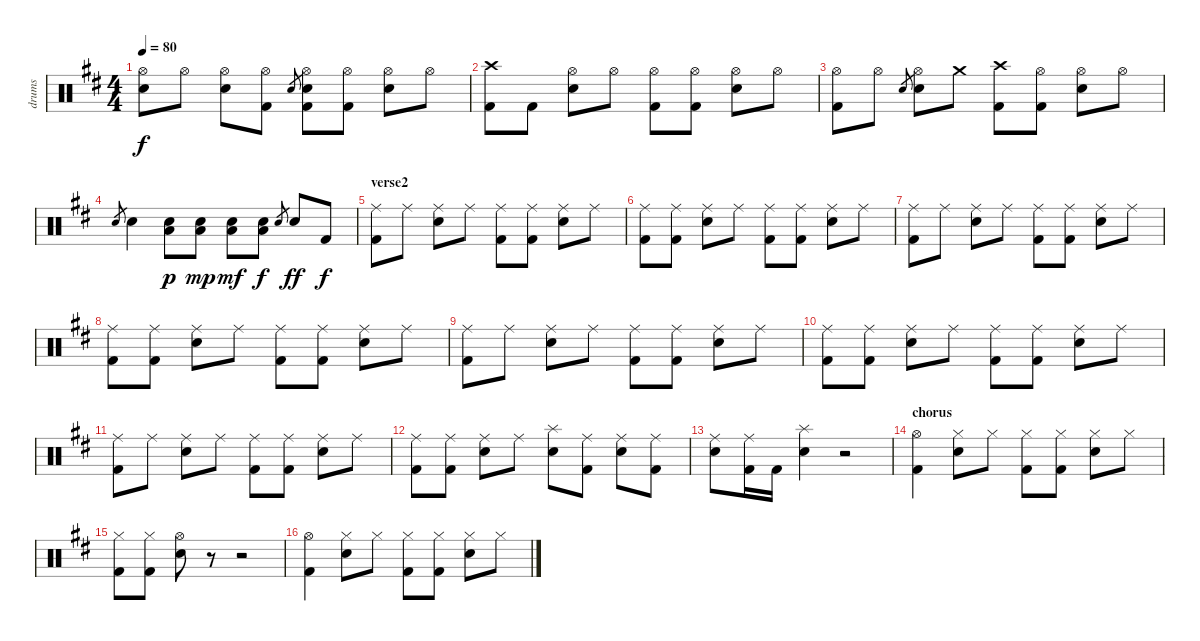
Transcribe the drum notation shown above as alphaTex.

\track ("drums" "drums") {instrument percussion}
\staff {score}
\articulation defaults
\ts (4 4)
\tempo 80
\clef neutral
\ks bminor
("Hi-Hat (open)" "Electric Snare (hit)").8{dy f} "Hi-Hat (open)".8 ("Hi-Hat (open)" "Electric Snare (hit)").8 ("Hi-Hat (open)" "Kick (hit) 2").8 "Electric Snare (hit)".8{gr} ("Hi-Hat (open)" "Electric Snare (hit)" "Kick (hit) 2").8 ("Hi-Hat (open)" "Kick (hit) 2").8 ("Hi-Hat (open)" "Electric Snare (hit)").8 "Hi-Hat (open)".8 |
("Crash high (hit)" "Kick (hit) 2").8 "Kick (hit) 2".8 ("Hi-Hat (open)" "Electric Snare (hit)").8 "Hi-Hat (open)".8 ("Hi-Hat (open)" "Kick (hit) 2").8 ("Hi-Hat (open)" "Kick (hit) 2").8 ("Hi-Hat (open)" "Electric Snare (hit)").8 "Hi-Hat (open)".8 |
("Hi-Hat (open)" "Kick (hit) 2").8 "Hi-Hat (open)".8 "Electric Snare (hit)".8{gr} ("Hi-Hat (open)" "Electric Snare (hit)").8 "Crash medium (hit)".8 ("Crash high (hit)" "Kick (hit) 2").8 ("Hi-Hat (open)" "Kick (hit) 2").8 ("Hi-Hat (open)" "Electric Snare (hit)").8 "Hi-Hat (open)".8 |
"Electric Snare (hit)".8{gr} "Electric Snare (hit)".4 ("Low Floor Tom (hit)" "Electric Snare (hit)").8{dy p} ("Low Floor Tom (hit)" "Electric Snare (hit)").8{dy mp} ("Low Floor Tom (hit)" "Electric Snare (hit)").8{dy mf} ("Low Floor Tom (hit)" "Electric Snare (hit)").8{dy f} "Electric Snare (hit)".8{gr} "Electric Snare (hit)".8{dy ff} "Kick (hit) 2".8{dy f} |
\section ("" "verse2")
("Ride (middle)" "Kick (hit) 2").8 "Ride (middle)".8 ("Ride (middle)" "Electric Snare (hit)").8 "Ride (middle)".8 ("Ride (middle)" "Kick (hit) 2").8 ("Ride (middle)" "Kick (hit) 2").8 ("Ride (middle)" "Electric Snare (hit)").8 "Ride (middle)".8 |
("Ride (middle)" "Kick (hit) 2").8 ("Ride (middle)" "Kick (hit) 2").8 ("Ride (middle)" "Electric Snare (hit)").8 "Ride (middle)".8 ("Ride (middle)" "Kick (hit) 2").8 ("Ride (middle)" "Kick (hit) 2").8 ("Ride (middle)" "Electric Snare (hit)").8 "Ride (middle)".8 |
("Ride (middle)" "Kick (hit) 2").8 "Ride (middle)".8 ("Ride (middle)" "Electric Snare (hit)").8 "Ride (middle)".8 ("Ride (middle)" "Kick (hit) 2").8 ("Ride (middle)" "Kick (hit) 2").8 ("Ride (middle)" "Electric Snare (hit)").8 "Ride (middle)".8 |
("Ride (middle)" "Kick (hit) 2").8 ("Ride (middle)" "Kick (hit) 2").8 ("Ride (middle)" "Electric Snare (hit)").8 "Ride (middle)".8 ("Ride (middle)" "Kick (hit) 2").8 ("Ride (middle)" "Kick (hit) 2").8 ("Ride (middle)" "Electric Snare (hit)").8 "Ride (middle)".8 |
("Ride (middle)" "Kick (hit) 2").8 "Ride (middle)".8 ("Ride (middle)" "Electric Snare (hit)").8 "Ride (middle)".8 ("Ride (middle)" "Kick (hit) 2").8 ("Ride (middle)" "Kick (hit) 2").8 ("Ride (middle)" "Electric Snare (hit)").8 "Ride (middle)".8 |
("Ride (middle)" "Kick (hit) 2").8 ("Ride (middle)" "Kick (hit) 2").8 ("Ride (middle)" "Electric Snare (hit)").8 "Ride (middle)".8 ("Ride (middle)" "Kick (hit) 2").8 ("Ride (middle)" "Kick (hit) 2").8 ("Ride (middle)" "Electric Snare (hit)").8 "Ride (middle)".8 |
("Ride (middle)" "Kick (hit) 2").8 "Ride (middle)".8 ("Ride (middle)" "Electric Snare (hit)").8 "Ride (middle)".8 ("Ride (middle)" "Kick (hit) 2").8 ("Ride (middle)" "Kick (hit) 2").8 ("Ride (middle)" "Electric Snare (hit)").8 "Ride (middle)".8 |
("Ride (middle)" "Kick (hit) 2").8 ("Ride (middle)" "Kick (hit) 2").8 ("Ride (middle)" "Electric Snare (hit)").8 "Ride (middle)".8 ("Splash (hit)" "Electric Snare (hit)").8 ("Ride (middle)" "Kick (hit) 2").8 ("Ride (middle)" "Electric Snare (hit)").8 ("Ride (middle)" "Kick (hit) 2").8 |
("Ride (middle)" "Electric Snare (hit)").8 ("Ride (middle)" "Kick (hit) 2").16 "Kick (hit) 2".16 ("Splash (hit)" "Electric Snare (hit)").4 r.2 |
\section ("" "chorus")
("Hi-Hat (open)" "Kick (hit) 2").4 ("Hi-Hat (closed)" "Electric Snare (hit)").8 "Hi-Hat (closed)".8 ("Hi-Hat (closed)" "Kick (hit) 2").8 ("Hi-Hat (closed)" "Kick (hit) 2").8 ("Hi-Hat (closed)" "Electric Snare (hit)").8 "Hi-Hat (closed)".8 |
("Hi-Hat (closed)" "Kick (hit) 2").8 ("Hi-Hat (closed)" "Kick (hit) 2").8 ("Hi-Hat (open)" "Electric Snare (hit)").8 r.8 r.2 |
("Hi-Hat (open)" "Kick (hit) 2").4 ("Hi-Hat (closed)" "Electric Snare (hit)").8 "Hi-Hat (closed)".8 ("Hi-Hat (closed)" "Kick (hit) 2").8 ("Hi-Hat (closed)" "Kick (hit) 2").8 ("Hi-Hat (closed)" "Electric Snare (hit)").8 "Hi-Hat (closed)".8
